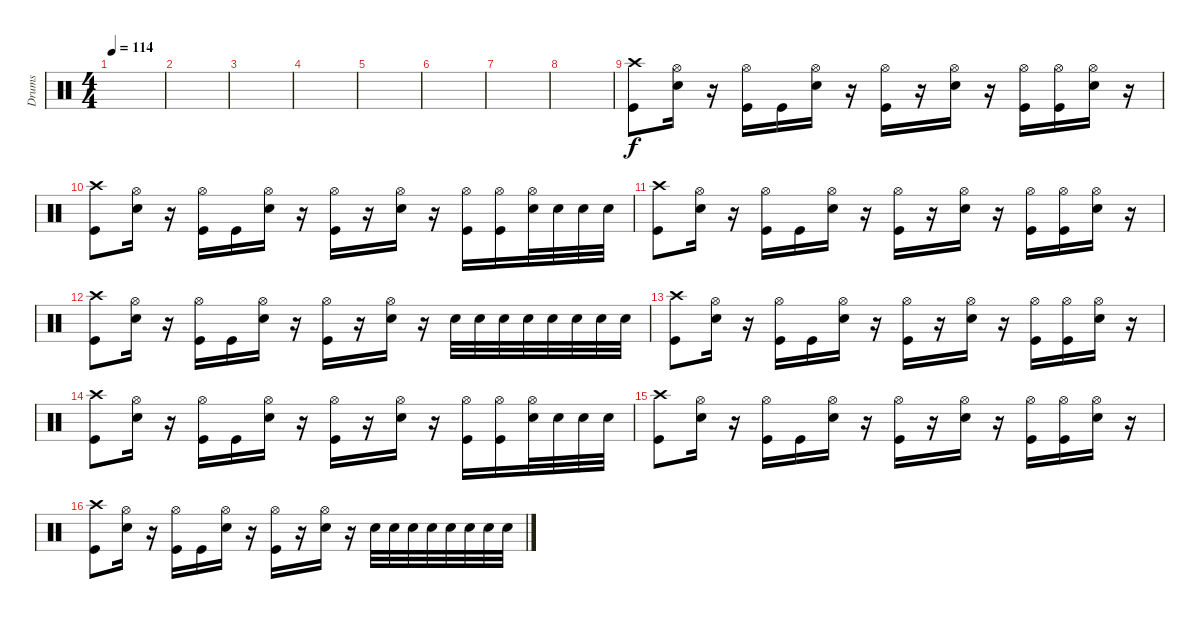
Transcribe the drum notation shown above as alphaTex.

\track ("Drums" "Drums") {instrument percussion}
\staff {score}
\articulation defaults
\ts (4 4)
\tempo 114
\clef neutral
\ks c
|
|
|
|
|
|
|
|
("Crash high (hit)" "Kick (hit)").8 ("Hi-Hat (open)" "Snare (hit) 2").16 r.16 ("Hi-Hat (open)" "Kick (hit)").16 "Kick (hit)".16 ("Hi-Hat (open)" "Snare (hit) 2").16 r.16 ("Hi-Hat (open)" "Kick (hit)").16 r.16 ("Hi-Hat (open)" "Snare (hit) 2").16 r.16 ("Hi-Hat (open)" "Kick (hit)").16 ("Hi-Hat (open)" "Kick (hit)").16 ("Hi-Hat (open)" "Snare (hit) 2").16 r.16 |
("Crash high (hit)" "Kick (hit)").8 ("Hi-Hat (open)" "Snare (hit) 2").16 r.16 ("Hi-Hat (open)" "Kick (hit)").16 "Kick (hit)".16 ("Hi-Hat (open)" "Snare (hit) 2").16 r.16 ("Hi-Hat (open)" "Kick (hit)").16 r.16 ("Hi-Hat (open)" "Snare (hit) 2").16 r.16 ("Hi-Hat (open)" "Kick (hit)").16 ("Hi-Hat (open)" "Kick (hit)").16 ("Hi-Hat (open)" "Snare (hit) 2").32 "Snare (hit) 2".32 "Snare (hit) 2".32 "Snare (hit) 2".32 |
("Crash high (hit)" "Kick (hit)").8 ("Hi-Hat (open)" "Snare (hit) 2").16 r.16 ("Hi-Hat (open)" "Kick (hit)").16 "Kick (hit)".16 ("Hi-Hat (open)" "Snare (hit) 2").16 r.16 ("Hi-Hat (open)" "Kick (hit)").16 r.16 ("Hi-Hat (open)" "Snare (hit) 2").16 r.16 ("Hi-Hat (open)" "Kick (hit)").16 ("Hi-Hat (open)" "Kick (hit)").16 ("Hi-Hat (open)" "Snare (hit) 2").16 r.16 |
("Crash high (hit)" "Kick (hit)").8 ("Hi-Hat (open)" "Snare (hit) 2").16 r.16 ("Hi-Hat (open)" "Kick (hit)").16 "Kick (hit)".16 ("Hi-Hat (open)" "Snare (hit) 2").16 r.16 ("Hi-Hat (open)" "Kick (hit)").16 r.16 ("Hi-Hat (open)" "Snare (hit) 2").16 r.16 "Snare (hit) 2".32 "Snare (hit) 2".32 "Snare (hit) 2".32 "Snare (hit) 2".32 "Snare (hit) 2".32 "Snare (hit) 2".32 "Snare (hit) 2".32 "Snare (hit) 2".32 |
("Crash high (hit)" "Kick (hit)").8 ("Hi-Hat (open)" "Snare (hit) 2").16 r.16 ("Hi-Hat (open)" "Kick (hit)").16 "Kick (hit)".16 ("Hi-Hat (open)" "Snare (hit) 2").16 r.16 ("Hi-Hat (open)" "Kick (hit)").16 r.16 ("Hi-Hat (open)" "Snare (hit) 2").16 r.16 ("Hi-Hat (open)" "Kick (hit)").16 ("Hi-Hat (open)" "Kick (hit)").16 ("Hi-Hat (open)" "Snare (hit) 2").16 r.16 |
("Crash high (hit)" "Kick (hit)").8 ("Hi-Hat (open)" "Snare (hit) 2").16 r.16 ("Hi-Hat (open)" "Kick (hit)").16 "Kick (hit)".16 ("Hi-Hat (open)" "Snare (hit) 2").16 r.16 ("Hi-Hat (open)" "Kick (hit)").16 r.16 ("Hi-Hat (open)" "Snare (hit) 2").16 r.16 ("Hi-Hat (open)" "Kick (hit)").16 ("Hi-Hat (open)" "Kick (hit)").16 ("Hi-Hat (open)" "Snare (hit) 2").32 "Snare (hit) 2".32 "Snare (hit) 2".32 "Snare (hit) 2".32 |
("Crash high (hit)" "Kick (hit)").8 ("Hi-Hat (open)" "Snare (hit) 2").16 r.16 ("Hi-Hat (open)" "Kick (hit)").16 "Kick (hit)".16 ("Hi-Hat (open)" "Snare (hit) 2").16 r.16 ("Hi-Hat (open)" "Kick (hit)").16 r.16 ("Hi-Hat (open)" "Snare (hit) 2").16 r.16 ("Hi-Hat (open)" "Kick (hit)").16 ("Hi-Hat (open)" "Kick (hit)").16 ("Hi-Hat (open)" "Snare (hit) 2").16 r.16 |
("Crash high (hit)" "Kick (hit)").8 ("Hi-Hat (open)" "Snare (hit) 2").16 r.16 ("Hi-Hat (open)" "Kick (hit)").16 "Kick (hit)".16 ("Hi-Hat (open)" "Snare (hit) 2").16 r.16 ("Hi-Hat (open)" "Kick (hit)").16 r.16 ("Hi-Hat (open)" "Snare (hit) 2").16 r.16 "Snare (hit) 2".32 "Snare (hit) 2".32 "Snare (hit) 2".32 "Snare (hit) 2".32 "Snare (hit) 2".32 "Snare (hit) 2".32 "Snare (hit) 2".32 "Snare (hit) 2".32
